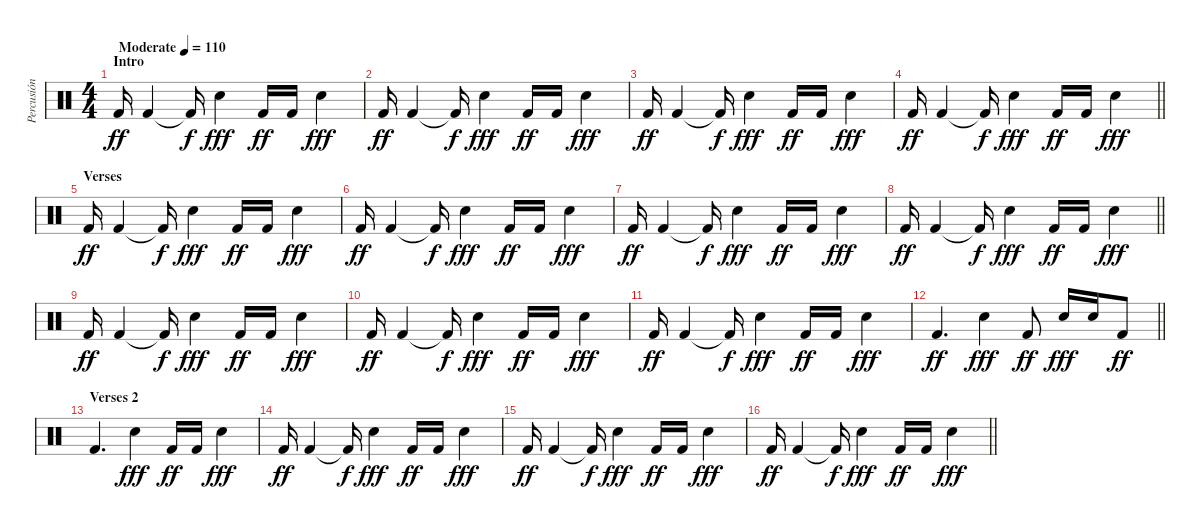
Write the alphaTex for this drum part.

\track ("Percusión" "Percusión") {instrument percussion}
\staff {score}
\articulation defaults
\ts (4 4)
\section ("" "Intro")
\tempo (110 "Moderate")
\clef neutral
\ks c "Kick (hit) 2".16{dy ff} "Kick (hit) 2".4 "Kick (hit) 2"{t}.16{dy f} "Electric Snare (hit)".4{dy fff} "Kick (hit) 2".16{dy ff} "Kick (hit) 2".16 "Electric Snare (hit)".4{dy fff}
|
"Kick (hit) 2".16{dy ff} "Kick (hit) 2".4 "Kick (hit) 2"{t}.16{dy f} "Electric Snare (hit)".4{dy fff} "Kick (hit) 2".16{dy ff} "Kick (hit) 2".16 "Electric Snare (hit)".4{dy fff} |
"Kick (hit) 2".16{dy ff} "Kick (hit) 2".4 "Kick (hit) 2"{t}.16{dy f} "Electric Snare (hit)".4{dy fff} "Kick (hit) 2".16{dy ff} "Kick (hit) 2".16 "Electric Snare (hit)".4{dy fff} |
\barLineRight lightlight "Kick (hit) 2".16{dy ff} "Kick (hit) 2".4 "Kick (hit) 2"{t}.16{dy f} "Electric Snare (hit)".4{dy fff} "Kick (hit) 2".16{dy ff} "Kick (hit) 2".16 "Electric Snare (hit)".4{dy fff}
|
\section ("" "Verses")
"Kick (hit) 2".16{dy ff} "Kick (hit) 2".4 "Kick (hit) 2"{t}.16{dy f} "Electric Snare (hit)".4{dy fff} "Kick (hit) 2".16{dy ff} "Kick (hit) 2".16 "Electric Snare (hit)".4{dy fff} |
"Kick (hit) 2".16{dy ff} "Kick (hit) 2".4 "Kick (hit) 2"{t}.16{dy f} "Electric Snare (hit)".4{dy fff} "Kick (hit) 2".16{dy ff} "Kick (hit) 2".16 "Electric Snare (hit)".4{dy fff} |
"Kick (hit) 2".16{dy ff} "Kick (hit) 2".4 "Kick (hit) 2"{t}.16{dy f} "Electric Snare (hit)".4{dy fff} "Kick (hit) 2".16{dy ff} "Kick (hit) 2".16 "Electric Snare (hit)".4{dy fff} |
\barLineRight lightlight "Kick (hit) 2".16{dy ff} "Kick (hit) 2".4 "Kick (hit) 2"{t}.16{dy f} "Electric Snare (hit)".4{dy fff} "Kick (hit) 2".16{dy ff} "Kick (hit) 2".16 "Electric Snare (hit)".4{dy fff}
|
"Kick (hit) 2".16{dy ff} "Kick (hit) 2".4 "Kick (hit) 2"{t}.16{dy f} "Electric Snare (hit)".4{dy fff} "Kick (hit) 2".16{dy ff} "Kick (hit) 2".16 "Electric Snare (hit)".4{dy fff} |
"Kick (hit) 2".16{dy ff} "Kick (hit) 2".4 "Kick (hit) 2"{t}.16{dy f} "Electric Snare (hit)".4{dy fff} "Kick (hit) 2".16{dy ff} "Kick (hit) 2".16 "Electric Snare (hit)".4{dy fff} |
"Kick (hit) 2".16{dy ff} "Kick (hit) 2".4 "Kick (hit) 2"{t}.16{dy f} "Electric Snare (hit)".4{dy fff} "Kick (hit) 2".16{dy ff} "Kick (hit) 2".16 "Electric Snare (hit)".4{dy fff} |
\barLineRight lightlight "Kick (hit) 2".4{d dy ff} "Electric Snare (hit)".4{dy fff} "Kick (hit) 2".8{dy ff} "Electric Snare (hit)".16{dy fff} "Electric Snare (hit)".16 "Kick (hit) 2".8{dy ff}
|
\section ("" "Verses 2")
"Kick (hit) 2".4{d} "Electric Snare (hit)".4{dy fff} "Kick (hit) 2".16{dy ff} "Kick (hit) 2".16 "Electric Snare (hit)".4{dy fff} |
"Kick (hit) 2".16{dy ff} "Kick (hit) 2".4 "Kick (hit) 2"{t}.16{dy f} "Electric Snare (hit)".4{dy fff} "Kick (hit) 2".16{dy ff} "Kick (hit) 2".16 "Electric Snare (hit)".4{dy fff} |
"Kick (hit) 2".16{dy ff} "Kick (hit) 2".4 "Kick (hit) 2"{t}.16{dy f} "Electric Snare (hit)".4{dy fff} "Kick (hit) 2".16{dy ff} "Kick (hit) 2".16 "Electric Snare (hit)".4{dy fff} |
\barLineRight lightlight "Kick (hit) 2".16{dy ff} "Kick (hit) 2".4 "Kick (hit) 2"{t}.16{dy f} "Electric Snare (hit)".4{dy fff} "Kick (hit) 2".16{dy ff} "Kick (hit) 2".16 "Electric Snare (hit)".4{dy fff}
